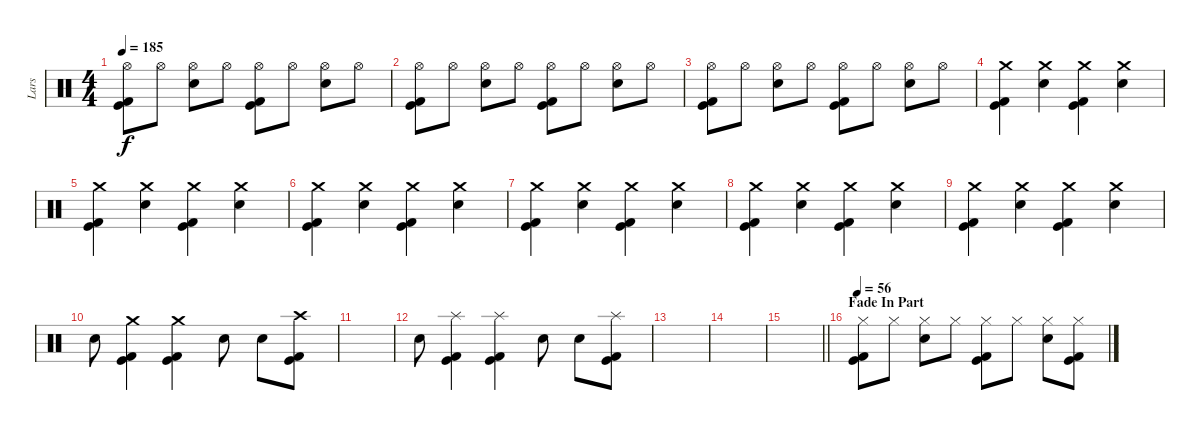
\track ("Lars" "Lars") {instrument percussion}
\staff {score}
\articulation defaults
\ts (4 4)
\tempo 185
\clef neutral
\ks c
("Hi-Hat (open)" "Kick (hit)" "Kick (hit) 2").8{dy f} "Hi-Hat (open)".8 ("Hi-Hat (open)" "Electric Snare (hit)").8 "Hi-Hat (open)".8 ("Hi-Hat (open)" "Kick (hit)" "Kick (hit) 2").8 "Hi-Hat (open)".8 ("Hi-Hat (open)" "Electric Snare (hit)").8 "Hi-Hat (open)".8 |
("Hi-Hat (open)" "Kick (hit)" "Kick (hit) 2").8 "Hi-Hat (open)".8 ("Hi-Hat (open)" "Electric Snare (hit)").8 "Hi-Hat (open)".8 ("Hi-Hat (open)" "Kick (hit)" "Kick (hit) 2").8 "Hi-Hat (open)".8 ("Hi-Hat (open)" "Electric Snare (hit)").8 "Hi-Hat (open)".8 |
("Hi-Hat (open)" "Kick (hit)" "Kick (hit) 2").8 "Hi-Hat (open)".8 ("Hi-Hat (open)" "Electric Snare (hit)").8 "Hi-Hat (open)".8 ("Hi-Hat (open)" "Kick (hit)" "Kick (hit) 2").8 "Hi-Hat (open)".8 ("Hi-Hat (open)" "Electric Snare (hit)").8 "Hi-Hat (open)".8 |
("Crash medium (hit)" "Kick (hit)" "Kick (hit) 2").4 ("Crash medium (hit)" "Electric Snare (hit)").4 ("Crash medium (hit)" "Kick (hit)" "Kick (hit) 2").4 ("Crash medium (hit)" "Electric Snare (hit)").4 |
("Crash medium (hit)" "Kick (hit)" "Kick (hit) 2").4 ("Crash medium (hit)" "Electric Snare (hit)").4 ("Crash medium (hit)" "Kick (hit)" "Kick (hit) 2").4 ("Crash medium (hit)" "Electric Snare (hit)").4 |
("Crash medium (hit)" "Kick (hit)" "Kick (hit) 2").4 ("Crash medium (hit)" "Electric Snare (hit)").4 ("Crash medium (hit)" "Kick (hit)" "Kick (hit) 2").4 ("Crash medium (hit)" "Electric Snare (hit)").4 |
("Crash medium (hit)" "Kick (hit)" "Kick (hit) 2").4 ("Crash medium (hit)" "Electric Snare (hit)").4 ("Crash medium (hit)" "Kick (hit)" "Kick (hit) 2").4 ("Crash medium (hit)" "Electric Snare (hit)").4 |
("Crash medium (hit)" "Kick (hit)" "Kick (hit) 2").4 ("Crash medium (hit)" "Electric Snare (hit)").4 ("Crash medium (hit)" "Kick (hit)" "Kick (hit) 2").4 ("Crash medium (hit)" "Electric Snare (hit)").4 |
("Crash medium (hit)" "Kick (hit)" "Kick (hit) 2").4 ("Crash medium (hit)" "Electric Snare (hit)").4 ("Crash medium (hit)" "Kick (hit)" "Kick (hit) 2").4 ("Crash medium (hit)" "Electric Snare (hit)").4 |
"Electric Snare (hit)".8 ("Crash medium (hit)" "Kick (hit)" "Kick (hit) 2").4 ("Crash medium (hit)" "Kick (hit)" "Kick (hit) 2").4 "Electric Snare (hit)".8 "Electric Snare (hit)".8 ("Crash high (hit)" "Kick (hit)" "Kick (hit) 2").8 |
|
"Electric Snare (hit)".8 ("Splash (hit)" "Kick (hit)" "Kick (hit) 2").4 ("Splash (hit)" "Kick (hit)" "Kick (hit) 2").4 "Electric Snare (hit)".8 "Electric Snare (hit)".8 ("Splash (hit)" "Kick (hit)" "Kick (hit) 2").8 |
|
|
\barLineRight lightlight
|
\section ("" "Fade In Part")
\tempo 56
("Hi-Hat (closed)" "Kick (hit)" "Kick (hit) 2").8{volume 16} "Hi-Hat (closed)".8 ("Hi-Hat (closed)" "Electric Snare (hit)").8 "Hi-Hat (closed)".8 ("Hi-Hat (closed)" "Kick (hit)" "Kick (hit) 2").8 "Hi-Hat (closed)".8 ("Hi-Hat (closed)" "Electric Snare (hit)").8 ("Hi-Hat (closed)" "Kick (hit)" "Kick (hit) 2").8
